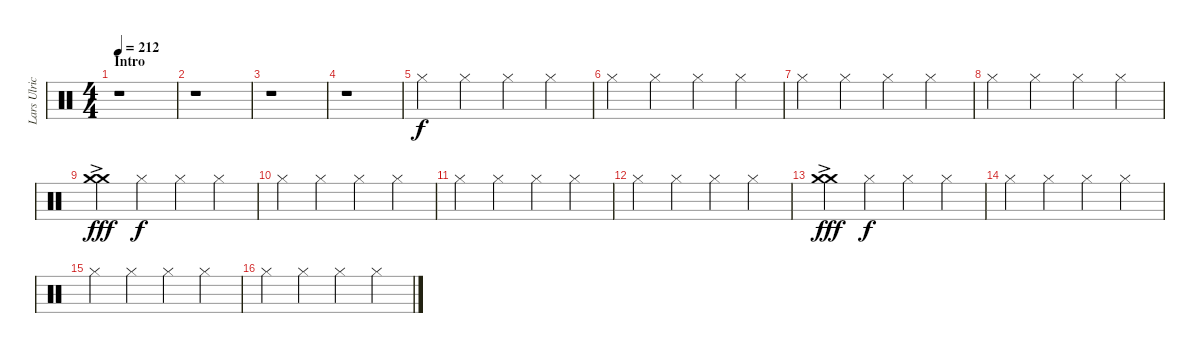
\track ("Lars Ulrich" "Lars Ulric") {instrument percussion}
\staff {score}
\articulation defaults
\ts (4 4)
\section ("" "Intro")
\tempo 212
\clef neutral
\ks c
r.1{dy f} |
r.1 |
r.1 |
r.1 |
"Hi-Hat (closed)".4 "Hi-Hat (closed)".4 "Hi-Hat (closed)".4 "Hi-Hat (closed)".4 |
"Hi-Hat (closed)".4 "Hi-Hat (closed)".4 "Hi-Hat (closed)".4 "Hi-Hat (closed)".4 |
"Hi-Hat (closed)".4 "Hi-Hat (closed)".4 "Hi-Hat (closed)".4 "Hi-Hat (closed)".4 |
"Hi-Hat (closed)".4 "Hi-Hat (closed)".4 "Hi-Hat (closed)".4 "Hi-Hat (closed)".4 |
("Crash medium (hit)"{ac} "Crash medium (hit)"{ac}).4{dy fff} "Hi-Hat (closed)".4{dy f} "Hi-Hat (closed)".4 "Hi-Hat (closed)".4 |
"Hi-Hat (closed)".4 "Hi-Hat (closed)".4 "Hi-Hat (closed)".4 "Hi-Hat (closed)".4 |
"Hi-Hat (closed)".4 "Hi-Hat (closed)".4 "Hi-Hat (closed)".4 "Hi-Hat (closed)".4 |
"Hi-Hat (closed)".4 "Hi-Hat (closed)".4 "Hi-Hat (closed)".4 "Hi-Hat (closed)".4 |
("Crash medium (hit)"{ac} "Crash medium (hit)"{ac}).4{dy fff} "Hi-Hat (closed)".4{dy f} "Hi-Hat (closed)".4 "Hi-Hat (closed)".4 |
"Hi-Hat (closed)".4 "Hi-Hat (closed)".4 "Hi-Hat (closed)".4 "Hi-Hat (closed)".4 |
"Hi-Hat (closed)".4 "Hi-Hat (closed)".4 "Hi-Hat (closed)".4 "Hi-Hat (closed)".4 |
"Hi-Hat (closed)".4 "Hi-Hat (closed)".4 "Hi-Hat (closed)".4 "Hi-Hat (closed)".4
